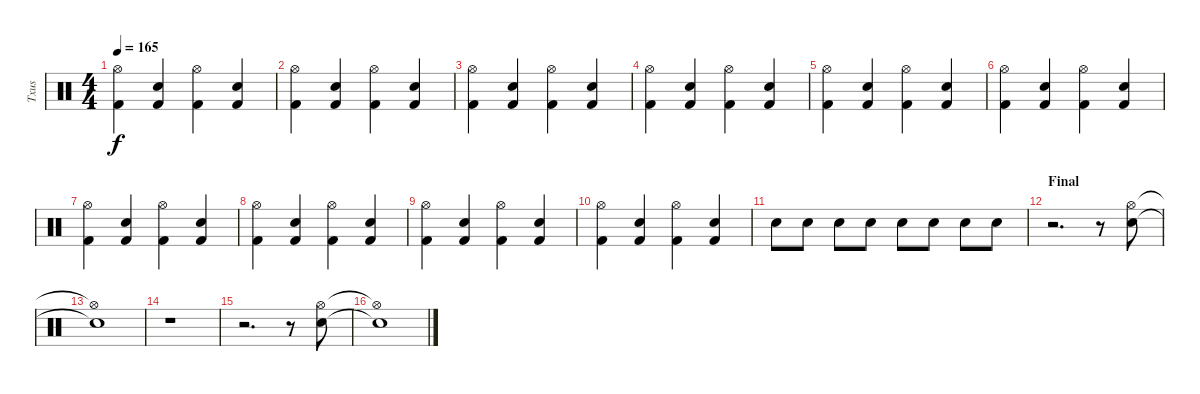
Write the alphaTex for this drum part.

\track ("Txus" "Txus") {instrument percussion}
\staff {score}
\articulation defaults
\ts (4 4)
\tempo 165
\clef neutral
\ks c
("Hi-Hat (open)" "Kick (hit) 2").4{dy f} ("Snare (hit) 2" "Kick (hit) 2").4 ("Hi-Hat (open)" "Kick (hit) 2").4 ("Snare (hit) 2" "Kick (hit) 2").4 |
("Hi-Hat (open)" "Kick (hit) 2").4 ("Snare (hit) 2" "Kick (hit) 2").4 ("Hi-Hat (open)" "Kick (hit) 2").4 ("Snare (hit) 2" "Kick (hit) 2").4 |
("Hi-Hat (open)" "Kick (hit) 2").4 ("Snare (hit) 2" "Kick (hit) 2").4 ("Hi-Hat (open)" "Kick (hit) 2").4 ("Snare (hit) 2" "Kick (hit) 2").4 |
("Hi-Hat (open)" "Kick (hit) 2").4 ("Snare (hit) 2" "Kick (hit) 2").4 ("Hi-Hat (open)" "Kick (hit) 2").4 ("Snare (hit) 2" "Kick (hit) 2").4 |
("Hi-Hat (open)" "Kick (hit) 2").4 ("Snare (hit) 2" "Kick (hit) 2").4 ("Hi-Hat (open)" "Kick (hit) 2").4 ("Snare (hit) 2" "Kick (hit) 2").4 |
("Hi-Hat (open)" "Kick (hit) 2").4 ("Snare (hit) 2" "Kick (hit) 2").4 ("Hi-Hat (open)" "Kick (hit) 2").4 ("Snare (hit) 2" "Kick (hit) 2").4 |
("Hi-Hat (open)" "Kick (hit) 2").4 ("Snare (hit) 2" "Kick (hit) 2").4 ("Hi-Hat (open)" "Kick (hit) 2").4 ("Snare (hit) 2" "Kick (hit) 2").4 |
("Hi-Hat (open)" "Kick (hit) 2").4 ("Snare (hit) 2" "Kick (hit) 2").4 ("Hi-Hat (open)" "Kick (hit) 2").4 ("Snare (hit) 2" "Kick (hit) 2").4 |
("Hi-Hat (open)" "Kick (hit) 2").4 ("Snare (hit) 2" "Kick (hit) 2").4 ("Hi-Hat (open)" "Kick (hit) 2").4 ("Snare (hit) 2" "Kick (hit) 2").4 |
("Hi-Hat (open)" "Kick (hit) 2").4 ("Snare (hit) 2" "Kick (hit) 2").4 ("Hi-Hat (open)" "Kick (hit) 2").4 ("Snare (hit) 2" "Kick (hit) 2").4 |
"Snare (hit) 2".8 "Snare (hit) 2".8 "Snare (hit) 2".8 "Snare (hit) 2".8 "Snare (hit) 2".8 "Snare (hit) 2".8 "Snare (hit) 2".8 "Snare (hit) 2".8 |
\section ("" "Final")
r.2{d} r.8 ("Hi-Hat (open)" "Snare (hit) 2").8 |
("Hi-Hat (open)"{t} "Snare (hit) 2"{t}).1 |
r.1 |
r.2{d} r.8 ("Hi-Hat (open)" "Snare (hit) 2").8 |
("Hi-Hat (open)"{t} "Snare (hit) 2"{t}).1
